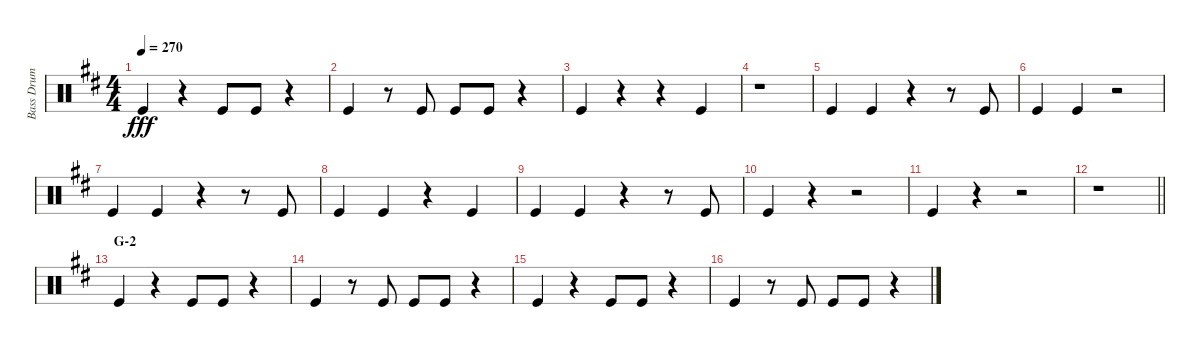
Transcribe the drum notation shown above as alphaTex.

\track ("Bass Drum" "Bass Drum") {instrument percussion}
\staff {score}
\articulation defaults
\ts (4 4)
\tempo 270
\clef neutral
\ks d "Kick (hit)".4{dy fff}
r.4 "Kick (hit)".8 "Kick (hit)".8 r.4 |
"Kick (hit)".4 r.8 "Kick (hit)".8 "Kick (hit)".8 "Kick (hit)".8 r.4 |
"Kick (hit)".4 r.4 r.4 "Kick (hit)".4 |
r.1 |
"Kick (hit)".4 "Kick (hit)".4 r.4 r.8 "Kick (hit)".8 |
"Kick (hit)".4 "Kick (hit)".4 r.2 |
"Kick (hit)".4 "Kick (hit)".4 r.4 r.8 "Kick (hit)".8 |
"Kick (hit)".4 "Kick (hit)".4 r.4 "Kick (hit)".4 |
"Kick (hit)".4 "Kick (hit)".4 r.4 r.8 "Kick (hit)".8 |
"Kick (hit)".4 r.4 r.2 |
"Kick (hit)".4 r.4 r.2 |
\barLineRight lightlight
r.1 |
\section ("" "G-2")
"Kick (hit)".4 r.4 "Kick (hit)".8 "Kick (hit)".8 r.4 |
"Kick (hit)".4 r.8 "Kick (hit)".8 "Kick (hit)".8 "Kick (hit)".8 r.4 |
"Kick (hit)".4 r.4 "Kick (hit)".8 "Kick (hit)".8 r.4 |
"Kick (hit)".4 r.8 "Kick (hit)".8 "Kick (hit)".8 "Kick (hit)".8 r.4
